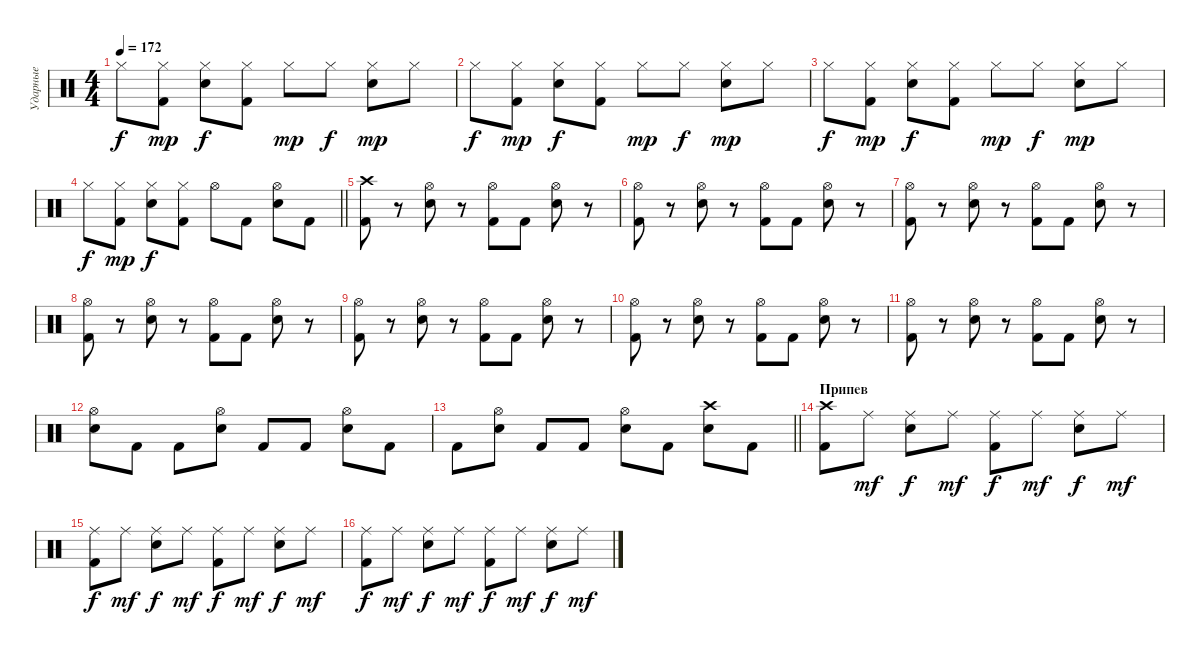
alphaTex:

\track ("Ударные" "Ударные") {instrument percussion}
\staff {score}
\articulation defaults
\ts (4 4)
\tempo 172
\clef neutral
\ks c "Hi-Hat (closed)".8{dy f}
("Hi-Hat (closed)" "Kick (hit) 2").8{dy mp} ("Hi-Hat (closed)" "Snare (hit) 2").8{dy f} ("Hi-Hat (closed)" "Kick (hit) 2").8 "Hi-Hat (closed)".8{dy mp} "Hi-Hat (closed)".8{dy f} ("Hi-Hat (closed)" "Snare (hit) 2").8{dy mp} "Hi-Hat (closed)".8 |
"Hi-Hat (closed)".8{dy f} ("Hi-Hat (closed)" "Kick (hit) 2").8{dy mp} ("Hi-Hat (closed)" "Snare (hit) 2").8{dy f} ("Hi-Hat (closed)" "Kick (hit) 2").8 "Hi-Hat (closed)".8{dy mp} "Hi-Hat (closed)".8{dy f} ("Hi-Hat (closed)" "Snare (hit) 2").8{dy mp} "Hi-Hat (closed)".8 |
"Hi-Hat (closed)".8{dy f} ("Hi-Hat (closed)" "Kick (hit) 2").8{dy mp} ("Hi-Hat (closed)" "Snare (hit) 2").8{dy f} ("Hi-Hat (closed)" "Kick (hit) 2").8 "Hi-Hat (closed)".8{dy mp} "Hi-Hat (closed)".8{dy f} ("Hi-Hat (closed)" "Snare (hit) 2").8{dy mp} "Hi-Hat (closed)".8 |
\barLineRight lightlight "Hi-Hat (closed)".8{dy f}
("Hi-Hat (closed)" "Kick (hit) 2").8{dy mp} ("Hi-Hat (closed)" "Snare (hit) 2").8{dy f} ("Hi-Hat (closed)" "Kick (hit) 2").8 "Hi-Hat (open)".8 "Kick (hit) 2".8 ("Hi-Hat (open)" "Snare (hit) 2").8 "Kick (hit) 2".8 |
\section ("" "")
("Crash high (hit)" "Kick (hit) 2").8 r.8 ("Hi-Hat (open)" "Snare (hit) 2").8 r.8 ("Hi-Hat (open)" "Kick (hit) 2").8 "Kick (hit) 2".8 ("Hi-Hat (open)" "Snare (hit) 2").8 r.8 |
("Hi-Hat (open)" "Kick (hit) 2").8 r.8 ("Hi-Hat (open)" "Snare (hit) 2").8 r.8 ("Hi-Hat (open)" "Kick (hit) 2").8 "Kick (hit) 2".8 ("Hi-Hat (open)" "Snare (hit) 2").8 r.8 |
("Hi-Hat (open)" "Kick (hit) 2").8 r.8 ("Hi-Hat (open)" "Snare (hit) 2").8 r.8 ("Hi-Hat (open)" "Kick (hit) 2").8 "Kick (hit) 2".8 ("Hi-Hat (open)" "Snare (hit) 2").8 r.8 |
("Hi-Hat (open)" "Kick (hit) 2").8 r.8 ("Hi-Hat (open)" "Snare (hit) 2").8 r.8 ("Hi-Hat (open)" "Kick (hit) 2").8 "Kick (hit) 2".8 ("Hi-Hat (open)" "Snare (hit) 2").8 r.8 |
("Hi-Hat (open)" "Kick (hit) 2").8 r.8 ("Hi-Hat (open)" "Snare (hit) 2").8 r.8 ("Hi-Hat (open)" "Kick (hit) 2").8 "Kick (hit) 2".8 ("Hi-Hat (open)" "Snare (hit) 2").8 r.8 |
("Hi-Hat (open)" "Kick (hit) 2").8 r.8 ("Hi-Hat (open)" "Snare (hit) 2").8 r.8 ("Hi-Hat (open)" "Kick (hit) 2").8 "Kick (hit) 2".8 ("Hi-Hat (open)" "Snare (hit) 2").8 r.8 |
("Hi-Hat (open)" "Kick (hit) 2").8 r.8 ("Hi-Hat (open)" "Snare (hit) 2").8 r.8 ("Hi-Hat (open)" "Kick (hit) 2").8 "Kick (hit) 2".8 ("Hi-Hat (open)" "Snare (hit) 2").8 r.8 |
("Hi-Hat (open)" "Snare (hit) 2").8 "Kick (hit) 2".8 "Kick (hit) 2".8 ("Hi-Hat (open)" "Snare (hit) 2").8 "Kick (hit) 2".8 "Kick (hit) 2".8 ("Hi-Hat (open)" "Snare (hit) 2").8 "Kick (hit) 2".8 |
\barLineRight lightlight "Kick (hit) 2".8
("Hi-Hat (open)" "Snare (hit) 2").8 "Kick (hit) 2".8 "Kick (hit) 2".8 ("Hi-Hat (open)" "Snare (hit) 2").8 "Kick (hit) 2".8 ("Crash high (hit)" "Snare (hit) 2").8 "Kick (hit) 2".8 |
\section ("" "Припев")
("Crash high (hit)" "Kick (hit) 2").8 "Ride (middle)".8{dy mf} ("Ride (middle)" "Snare (hit) 2").8{dy f} "Ride (middle)".8{dy mf} ("Ride (middle)" "Kick (hit) 2").8{dy f} "Ride (middle)".8{dy mf} ("Ride (middle)" "Snare (hit) 2").8{dy f} "Ride (middle)".8{dy mf} |
("Ride (middle)" "Kick (hit) 2").8{dy f} "Ride (middle)".8{dy mf} ("Ride (middle)" "Snare (hit) 2").8{dy f} "Ride (middle)".8{dy mf} ("Ride (middle)" "Kick (hit) 2").8{dy f} "Ride (middle)".8{dy mf} ("Ride (middle)" "Snare (hit) 2").8{dy f} "Ride (middle)".8{dy mf} |
("Ride (middle)" "Kick (hit) 2").8{dy f} "Ride (middle)".8{dy mf} ("Ride (middle)" "Snare (hit) 2").8{dy f} "Ride (middle)".8{dy mf} ("Ride (middle)" "Kick (hit) 2").8{dy f} "Ride (middle)".8{dy mf} ("Ride (middle)" "Snare (hit) 2").8{dy f} "Ride (middle)".8{dy mf}
